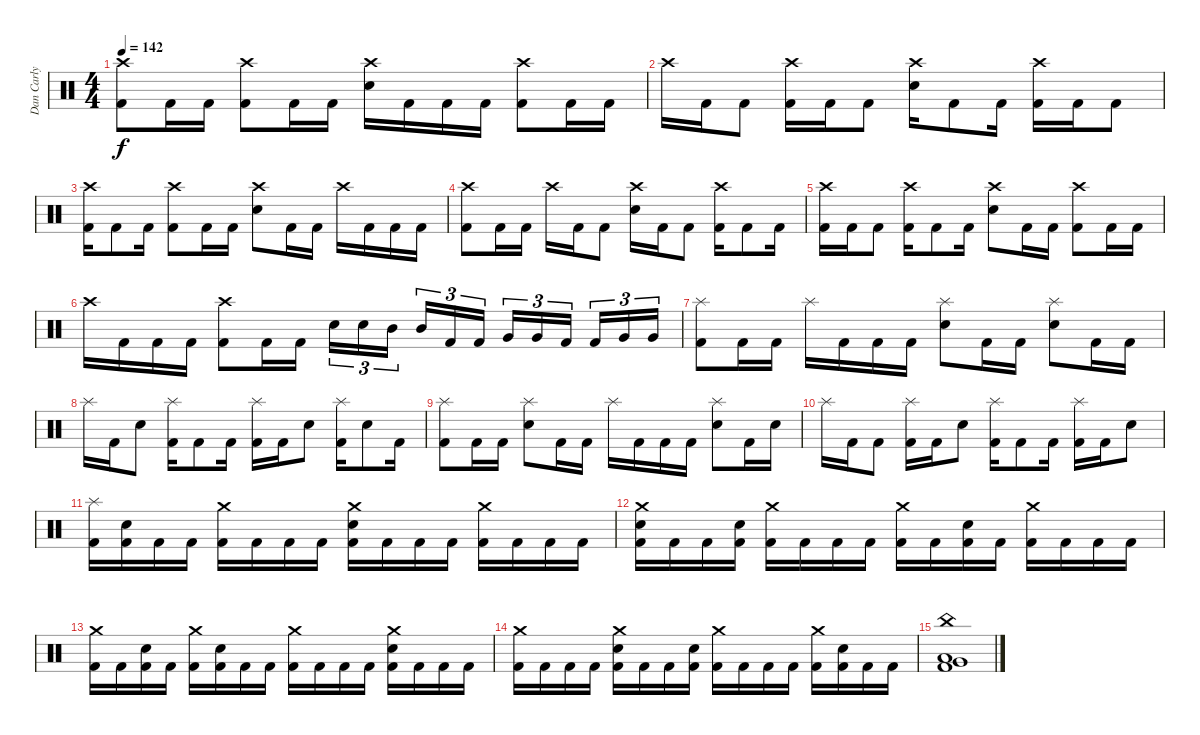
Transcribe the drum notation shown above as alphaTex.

\track ("Dan Carly" "Dan Carly") {instrument percussion}
\staff {score}
\articulation defaults
\ts (4 4)
\tempo 142
\clef neutral
\ks c
("Crash high (hit)" "Kick (hit) 2").8{dy f} "Kick (hit) 2".16 "Kick (hit) 2".16 ("Crash high (hit)" "Kick (hit) 2").8 "Kick (hit) 2".16 "Kick (hit) 2".16 ("Crash high (hit)" "Electric Snare (hit)").16 "Kick (hit) 2".16 "Kick (hit) 2".16 "Kick (hit) 2".16 ("Crash high (hit)" "Kick (hit) 2").8 "Kick (hit) 2".16 "Kick (hit) 2".16 |
"Crash high (hit)".16 "Kick (hit) 2".16 "Kick (hit) 2".8 ("Crash high (hit)" "Kick (hit) 2").16 "Kick (hit) 2".16 "Kick (hit) 2".8 ("Crash high (hit)" "Electric Snare (hit)").16 "Kick (hit) 2".8 "Kick (hit) 2".16 ("Crash high (hit)" "Kick (hit) 2").16 "Kick (hit) 2".16 "Kick (hit) 2".8 |
("Crash high (hit)" "Kick (hit) 2").16 "Kick (hit) 2".8 "Kick (hit) 2".16 ("Crash high (hit)" "Kick (hit) 2").8 "Kick (hit) 2".16 "Kick (hit) 2".16 ("Crash high (hit)" "Electric Snare (hit)").8 "Kick (hit) 2".16 "Kick (hit) 2".16 "Crash high (hit)".16 "Kick (hit) 2".16 "Kick (hit) 2".16 "Kick (hit) 2".16 |
("Crash high (hit)" "Kick (hit) 2").8 "Kick (hit) 2".16 "Kick (hit) 2".16 "Crash high (hit)".16 "Kick (hit) 2".16 "Kick (hit) 2".8 ("Crash high (hit)" "Electric Snare (hit)").16 "Kick (hit) 2".16 "Kick (hit) 2".8 ("Crash high (hit)" "Kick (hit) 2").16 "Kick (hit) 2".8 "Kick (hit) 2".16 |
("Crash high (hit)" "Kick (hit) 2").16 "Kick (hit) 2".16 "Kick (hit) 2".8 ("Crash high (hit)" "Kick (hit) 2").16 "Kick (hit) 2".8 "Kick (hit) 2".16 ("Crash high (hit)" "Electric Snare (hit)").8 "Kick (hit) 2".16 "Kick (hit) 2".16 ("Crash high (hit)" "Kick (hit) 2").8 "Kick (hit) 2".16 "Kick (hit) 2".16 |
"Crash high (hit)".16 "Kick (hit) 2".16 "Kick (hit) 2".16 "Kick (hit) 2".16 ("Crash high (hit)" "Kick (hit) 2").8 "Kick (hit) 2".16 "Kick (hit) 2".16 "Electric Snare (hit)".16{tu (3 2)} "Electric Snare (hit)".16{tu (3 2)} "Mid Tom (hit)".16{tu (3 2) beam splitsecondary} "Mid Tom (hit)".16{tu (3 2)} "Kick (hit) 2".16{tu (3 2)} "Kick (hit) 2".16{tu (3 2)} "Very Low Tom (hit)".16{tu (3 2)} "Very Low Tom (hit)".16{tu (3 2)} "Kick (hit) 2".16{tu (3 2) beam splitsecondary} "Kick (hit) 2".16{tu (3 2)} "Very Low Tom (hit)".16{tu (3 2)} "Very Low Tom (hit)".16{tu (3 2)} |
("Splash (hit)" "Kick (hit) 2").8 "Kick (hit) 2".16 "Kick (hit) 2".16 "Splash (hit)".16 "Kick (hit) 2".16 "Kick (hit) 2".16 "Kick (hit) 2".16 ("Splash (hit)" "Electric Snare (hit)").8 "Kick (hit) 2".16 "Kick (hit) 2".16 ("Splash (hit)" "Electric Snare (hit)").8 "Kick (hit) 2".16 "Kick (hit) 2".16 |
"Splash (hit)".16 "Kick (hit) 2".16 "Electric Snare (hit)".8 ("Splash (hit)" "Kick (hit) 2").16 "Kick (hit) 2".8 "Kick (hit) 2".16 ("Splash (hit)" "Kick (hit) 2").16 "Kick (hit) 2".16 "Electric Snare (hit)".8 ("Splash (hit)" "Kick (hit) 2").16 "Electric Snare (hit)".8 "Kick (hit) 2".16 |
("Splash (hit)" "Kick (hit) 2").8 "Kick (hit) 2".16 "Kick (hit) 2".16 ("Splash (hit)" "Electric Snare (hit)").8 "Kick (hit) 2".16 "Kick (hit) 2".16 "Splash (hit)".16 "Kick (hit) 2".16 "Kick (hit) 2".16 "Kick (hit) 2".16 ("Splash (hit)" "Electric Snare (hit)").8 "Kick (hit) 2".16 "Electric Snare (hit)".16 |
"Splash (hit)".16 "Kick (hit) 2".16 "Kick (hit) 2".8 ("Splash (hit)" "Kick (hit) 2").16 "Kick (hit) 2".16 "Electric Snare (hit)".8 ("Splash (hit)" "Kick (hit) 2").16 "Kick (hit) 2".8 "Kick (hit) 2".16 ("Splash (hit)" "Kick (hit) 2").16 "Kick (hit) 2".16 "Electric Snare (hit)".8 |
("Splash (hit)" "Kick (hit) 2").16 ("Electric Snare (hit)" "Kick (hit) 2").16 "Kick (hit) 2".16 "Kick (hit) 2".16 ("Crash medium (hit)" "Kick (hit) 2").16 "Kick (hit) 2".16 "Kick (hit) 2".16 "Kick (hit) 2".16 ("Crash medium (hit)" "Electric Snare (hit)" "Kick (hit) 2").16 "Kick (hit) 2".16 "Kick (hit) 2".16 "Kick (hit) 2".16 ("Crash medium (hit)" "Kick (hit) 2").16 "Kick (hit) 2".16 "Kick (hit) 2".16 "Kick (hit) 2".16 |
("Crash medium (hit)" "Electric Snare (hit)" "Kick (hit) 2").16 "Kick (hit) 2".16 "Kick (hit) 2".16 ("Electric Snare (hit)" "Kick (hit) 2").16 ("Crash medium (hit)" "Kick (hit) 2").16 "Kick (hit) 2".16 "Kick (hit) 2".16 "Kick (hit) 2".16 ("Crash medium (hit)" "Kick (hit) 2").16 "Kick (hit) 2".16 ("Electric Snare (hit)" "Kick (hit) 2").16 "Kick (hit) 2".16 ("Crash medium (hit)" "Kick (hit) 2").16 "Kick (hit) 2".16 "Kick (hit) 2".16 "Kick (hit) 2".16 |
("Crash medium (hit)" "Kick (hit) 2").16 "Kick (hit) 2".16 ("Electric Snare (hit)" "Kick (hit) 2").16 "Kick (hit) 2".16 ("Crash medium (hit)" "Kick (hit) 2").16 ("Electric Snare (hit)" "Kick (hit) 2").16 "Kick (hit) 2".16 "Kick (hit) 2".16 ("Crash medium (hit)" "Kick (hit) 2").16 "Kick (hit) 2".16 "Kick (hit) 2".16 "Kick (hit) 2".16 ("Crash medium (hit)" "Electric Snare (hit)" "Kick (hit) 2").16 "Kick (hit) 2".16 "Kick (hit) 2".16 "Kick (hit) 2".16 |
("Crash medium (hit)" "Kick (hit) 2").16 "Kick (hit) 2".16 "Kick (hit) 2".16 "Kick (hit) 2".16 ("Crash medium (hit)" "Electric Snare (hit)" "Kick (hit) 2").16 "Kick (hit) 2".16 "Kick (hit) 2".16 ("Electric Snare (hit)" "Kick (hit) 2").16 ("Crash medium (hit)" "Kick (hit) 2").16 "Kick (hit) 2".16 "Kick (hit) 2".16 "Kick (hit) 2".16 ("Crash medium (hit)" "Kick (hit) 2").16 ("Electric Snare (hit)" "Kick (hit) 2").16 "Kick (hit) 2".16 "Kick (hit) 2".16 |
("China (hit)" "Very Low Tom (hit)" "Low Floor Tom (hit)" "Kick (hit) 2").1
